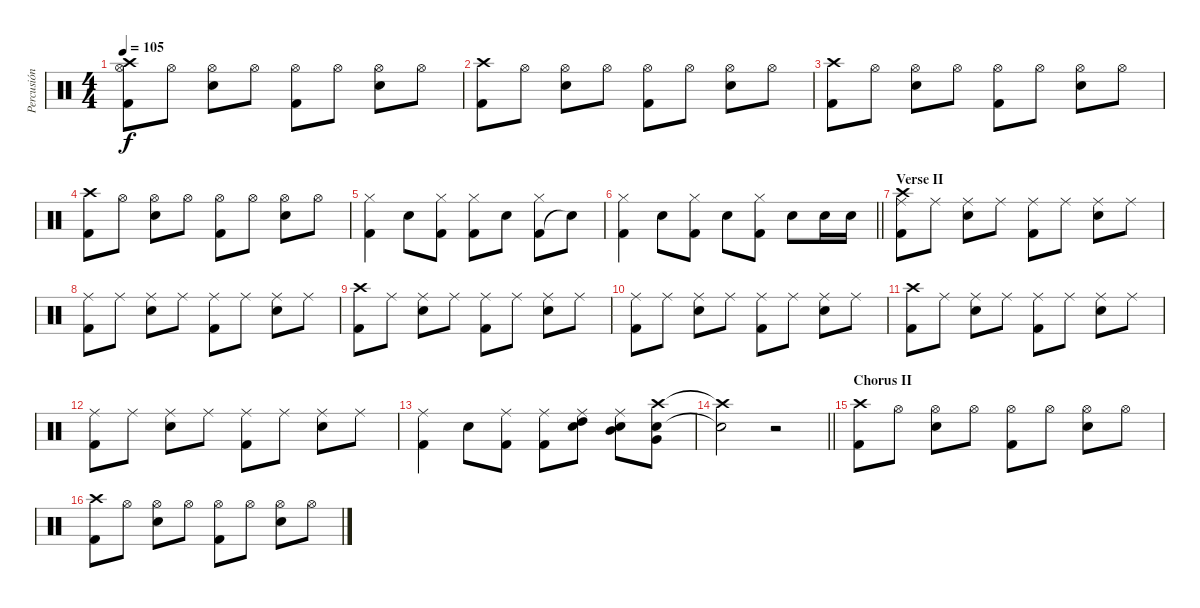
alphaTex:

\track ("Percusión" "Percusión") {instrument percussion}
\staff {score}
\articulation defaults
\ts (4 4)
\tempo 105
\clef neutral
\ks c
("Hi-Hat (open)" "Kick (hit) 2" "Crash high (hit)").8{dy f} "Hi-Hat (open)".8 ("Hi-Hat (open)" "Snare (hit) 2").8 "Hi-Hat (open)".8 ("Hi-Hat (open)" "Kick (hit) 2").8 "Hi-Hat (open)".8 ("Hi-Hat (open)" "Snare (hit) 2").8 "Hi-Hat (open)".8 |
("Crash high (hit)" "Kick (hit) 2").8 "Hi-Hat (open)".8 ("Hi-Hat (open)" "Snare (hit) 2").8 "Hi-Hat (open)".8 ("Hi-Hat (open)" "Kick (hit) 2").8 "Hi-Hat (open)".8 ("Hi-Hat (open)" "Snare (hit) 2").8 "Hi-Hat (open)".8 |
("Crash high (hit)" "Kick (hit) 2").8 "Hi-Hat (open)".8 ("Hi-Hat (open)" "Snare (hit) 2").8 "Hi-Hat (open)".8 ("Hi-Hat (open)" "Kick (hit) 2").8 "Hi-Hat (open)".8 ("Hi-Hat (open)" "Snare (hit) 2").8 "Hi-Hat (open)".8 |
("Crash high (hit)" "Kick (hit) 2").8 "Hi-Hat (open)".8 ("Hi-Hat (open)" "Snare (hit) 2").8 "Hi-Hat (open)".8 ("Hi-Hat (open)" "Kick (hit) 2").8 "Hi-Hat (open)".8 ("Hi-Hat (open)" "Snare (hit) 2").8 "Hi-Hat (open)".8 |
("Kick (hit) 2" "Hi-Hat (closed)").4 "Snare (hit) 2".8 ("Kick (hit) 2" "Hi-Hat (closed)").8 ("Kick (hit) 2" "Hi-Hat (closed)").8 "Snare (hit) 2".8 ("Kick (hit) 2" "Hi-Hat (closed)").8 "Snare (hit) 2"{t}.8 |
\barLineRight lightlight
("Kick (hit) 2" "Hi-Hat (closed)").4 "Snare (hit) 2".8 ("Kick (hit) 2" "Hi-Hat (closed)").8 "Snare (hit) 2".8 ("Kick (hit) 2" "Hi-Hat (closed)").8 "Snare (hit) 2".8 "Snare (hit) 2".16 "Snare (hit) 2".16 |
\section ("" "Verse II")
("Ride (middle)" "Kick (hit) 2" "Crash high (hit)").8 "Ride (middle)".8 ("Ride (middle)" "Snare (hit) 2").8 "Ride (middle)".8 ("Ride (middle)" "Kick (hit) 2").8 "Ride (middle)".8 ("Ride (middle)" "Snare (hit) 2").8 "Ride (middle)".8 |
("Ride (middle)" "Kick (hit) 2").8 "Ride (middle)".8 ("Ride (middle)" "Snare (hit) 2").8 "Ride (middle)".8 ("Ride (middle)" "Kick (hit) 2").8 "Ride (middle)".8 ("Ride (middle)" "Snare (hit) 2").8 "Ride (middle)".8 |
("Crash high (hit)" "Kick (hit) 2").8 "Ride (middle)".8 ("Ride (middle)" "Snare (hit) 2").8 "Ride (middle)".8 ("Ride (middle)" "Kick (hit) 2").8 "Ride (middle)".8 ("Ride (middle)" "Snare (hit) 2").8 "Ride (middle)".8 |
("Ride (middle)" "Kick (hit) 2").8 "Ride (middle)".8 ("Ride (middle)" "Snare (hit) 2").8 "Ride (middle)".8 ("Ride (middle)" "Kick (hit) 2").8 "Ride (middle)".8 ("Ride (middle)" "Snare (hit) 2").8 "Ride (middle)".8 |
("Crash high (hit)" "Kick (hit) 2").8 "Ride (middle)".8 ("Ride (middle)" "Snare (hit) 2").8 "Ride (middle)".8 ("Ride (middle)" "Kick (hit) 2").8 "Ride (middle)".8 ("Ride (middle)" "Snare (hit) 2").8 "Ride (middle)".8 |
("Ride (middle)" "Kick (hit) 2").8 "Ride (middle)".8 ("Ride (middle)" "Snare (hit) 2").8 "Ride (middle)".8 ("Ride (middle)" "Kick (hit) 2").8 "Ride (middle)".8 ("Ride (middle)" "Snare (hit) 2").8 "Ride (middle)".8 |
("Kick (hit) 2" "Ride (middle)").4 "Snare (hit) 2".8 ("Kick (hit) 2" "Ride (middle)").8 ("Kick (hit) 2" "Ride (middle)").8 ("Snare (hit) 2" "Ride (middle)" "High Tom (hit)").8 ("Snare (hit) 2" "Ride (middle)" "Mid Tom (hit)").8 ("Snare (hit) 2" "Crash high (hit)" "Very Low Tom (hit)").8 |
\barLineRight lightlight
("Snare (hit) 2"{t} "Crash high (hit)"{t}).2 r.2 |
\section ("" "Chorus II")
("Crash high (hit)" "Kick (hit) 2").8 "Hi-Hat (open)".8 ("Hi-Hat (open)" "Snare (hit) 2").8 "Hi-Hat (open)".8 ("Hi-Hat (open)" "Kick (hit) 2").8 "Hi-Hat (open)".8 ("Hi-Hat (open)" "Snare (hit) 2").8 "Hi-Hat (open)".8 |
("Crash high (hit)" "Kick (hit) 2").8 "Hi-Hat (open)".8 ("Hi-Hat (open)" "Snare (hit) 2").8 "Hi-Hat (open)".8 ("Hi-Hat (open)" "Kick (hit) 2").8 "Hi-Hat (open)".8 ("Hi-Hat (open)" "Snare (hit) 2").8 "Hi-Hat (open)".8
